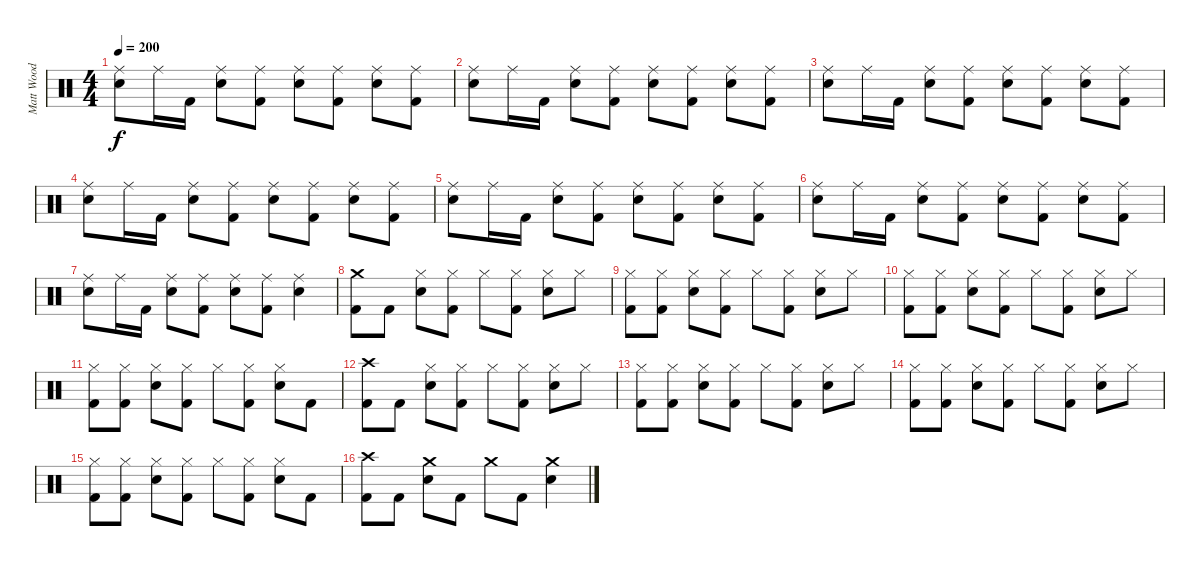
\track ("Matt Wood" "Matt Wood") {instrument percussion}
\staff {score}
\articulation defaults
\ts (4 4)
\tempo 200
\clef neutral
\ks c
("Ride (middle)" "Snare (hit) 2").8{dy f} "Ride (middle)".16 "Kick (hit) 2".16 ("Ride (middle)" "Snare (hit) 2").8 ("Ride (middle)" "Kick (hit) 2").8 ("Ride (middle)" "Snare (hit) 2").8 ("Ride (middle)" "Kick (hit) 2").8 ("Ride (middle)" "Snare (hit) 2").8 ("Ride (middle)" "Kick (hit) 2").8 |
("Ride (middle)" "Snare (hit) 2").8 "Ride (middle)".16 "Kick (hit) 2".16 ("Ride (middle)" "Snare (hit) 2").8 ("Ride (middle)" "Kick (hit) 2").8 ("Ride (middle)" "Snare (hit) 2").8 ("Ride (middle)" "Kick (hit) 2").8 ("Ride (middle)" "Snare (hit) 2").8 ("Ride (middle)" "Kick (hit) 2").8 |
("Ride (middle)" "Snare (hit) 2").8 "Ride (middle)".16 "Kick (hit) 2".16 ("Ride (middle)" "Snare (hit) 2").8 ("Ride (middle)" "Kick (hit) 2").8 ("Ride (middle)" "Snare (hit) 2").8 ("Ride (middle)" "Kick (hit) 2").8 ("Ride (middle)" "Snare (hit) 2").8 ("Ride (middle)" "Kick (hit) 2").8 |
("Ride (middle)" "Snare (hit) 2").8 "Ride (middle)".16 "Kick (hit) 2".16 ("Ride (middle)" "Snare (hit) 2").8 ("Ride (middle)" "Kick (hit) 2").8 ("Ride (middle)" "Snare (hit) 2").8 ("Ride (middle)" "Kick (hit) 2").8 ("Ride (middle)" "Snare (hit) 2").8 ("Ride (middle)" "Kick (hit) 2").8 |
("Ride (middle)" "Snare (hit) 2").8 "Ride (middle)".16 "Kick (hit) 2".16 ("Ride (middle)" "Snare (hit) 2").8 ("Ride (middle)" "Kick (hit) 2").8 ("Ride (middle)" "Snare (hit) 2").8 ("Ride (middle)" "Kick (hit) 2").8 ("Ride (middle)" "Snare (hit) 2").8 ("Ride (middle)" "Kick (hit) 2").8 |
("Ride (middle)" "Snare (hit) 2").8 "Ride (middle)".16 "Kick (hit) 2".16 ("Ride (middle)" "Snare (hit) 2").8 ("Ride (middle)" "Kick (hit) 2").8 ("Ride (middle)" "Snare (hit) 2").8 ("Ride (middle)" "Kick (hit) 2").8 ("Ride (middle)" "Snare (hit) 2").8 ("Ride (middle)" "Kick (hit) 2").8 |
("Ride (middle)" "Snare (hit) 2").8 "Ride (middle)".16 "Kick (hit) 2".16 ("Ride (middle)" "Snare (hit) 2").8 ("Ride (middle)" "Kick (hit) 2").8 ("Ride (middle)" "Snare (hit) 2").8 ("Ride (middle)" "Kick (hit) 2").8 ("Ride (middle)" "Snare (hit) 2").4 |
("Crash medium (hit)" "Kick (hit) 2").8 "Kick (hit) 2".8 ("Hi-Hat (closed)" "Snare (hit) 2").8 ("Hi-Hat (closed)" "Kick (hit) 2").8 "Hi-Hat (closed)".8 ("Hi-Hat (closed)" "Kick (hit) 2").8 ("Hi-Hat (closed)" "Snare (hit) 2").8 "Hi-Hat (closed)".8 |
("Hi-Hat (closed)" "Kick (hit) 2").8 ("Hi-Hat (closed)" "Kick (hit) 2").8 ("Hi-Hat (closed)" "Snare (hit) 2").8 ("Hi-Hat (closed)" "Kick (hit) 2").8 "Hi-Hat (closed)".8 ("Hi-Hat (closed)" "Kick (hit) 2").8 ("Hi-Hat (closed)" "Snare (hit) 2").8 "Hi-Hat (closed)".8 |
("Hi-Hat (closed)" "Kick (hit) 2").8 ("Hi-Hat (closed)" "Kick (hit) 2").8 ("Hi-Hat (closed)" "Snare (hit) 2").8 ("Hi-Hat (closed)" "Kick (hit) 2").8 "Hi-Hat (closed)".8 ("Hi-Hat (closed)" "Kick (hit) 2").8 ("Hi-Hat (closed)" "Snare (hit) 2").8 "Hi-Hat (closed)".8 |
("Hi-Hat (closed)" "Kick (hit) 2").8 ("Hi-Hat (closed)" "Kick (hit) 2").8 ("Hi-Hat (closed)" "Snare (hit) 2").8 ("Hi-Hat (closed)" "Kick (hit) 2").8 "Hi-Hat (closed)".8 ("Hi-Hat (closed)" "Kick (hit) 2").8 ("Hi-Hat (closed)" "Snare (hit) 2").8 "Kick (hit) 2".8 |
("Crash high (hit)" "Kick (hit) 2").8 "Kick (hit) 2".8 ("Hi-Hat (closed)" "Snare (hit) 2").8 ("Hi-Hat (closed)" "Kick (hit) 2").8 "Hi-Hat (closed)".8 ("Hi-Hat (closed)" "Kick (hit) 2").8 ("Hi-Hat (closed)" "Snare (hit) 2").8 "Hi-Hat (closed)".8 |
("Hi-Hat (closed)" "Kick (hit) 2").8 ("Hi-Hat (closed)" "Kick (hit) 2").8 ("Hi-Hat (closed)" "Snare (hit) 2").8 ("Hi-Hat (closed)" "Kick (hit) 2").8 "Hi-Hat (closed)".8 ("Hi-Hat (closed)" "Kick (hit) 2").8 ("Hi-Hat (closed)" "Snare (hit) 2").8 "Hi-Hat (closed)".8 |
("Hi-Hat (closed)" "Kick (hit) 2").8 ("Hi-Hat (closed)" "Kick (hit) 2").8 ("Hi-Hat (closed)" "Snare (hit) 2").8 ("Hi-Hat (closed)" "Kick (hit) 2").8 "Hi-Hat (closed)".8 ("Hi-Hat (closed)" "Kick (hit) 2").8 ("Hi-Hat (closed)" "Snare (hit) 2").8 "Hi-Hat (closed)".8 |
("Hi-Hat (closed)" "Kick (hit) 2").8 ("Hi-Hat (closed)" "Kick (hit) 2").8 ("Hi-Hat (closed)" "Snare (hit) 2").8 ("Hi-Hat (closed)" "Kick (hit) 2").8 "Hi-Hat (closed)".8 ("Hi-Hat (closed)" "Kick (hit) 2").8 ("Hi-Hat (closed)" "Snare (hit) 2").8 "Kick (hit) 2".8 |
("Crash high (hit)" "Kick (hit) 2").8 "Kick (hit) 2".8 ("Crash medium (hit)" "Snare (hit) 2").8 "Kick (hit) 2".8 "Crash medium (hit)".8 "Kick (hit) 2".8 ("Crash medium (hit)" "Snare (hit) 2").4
